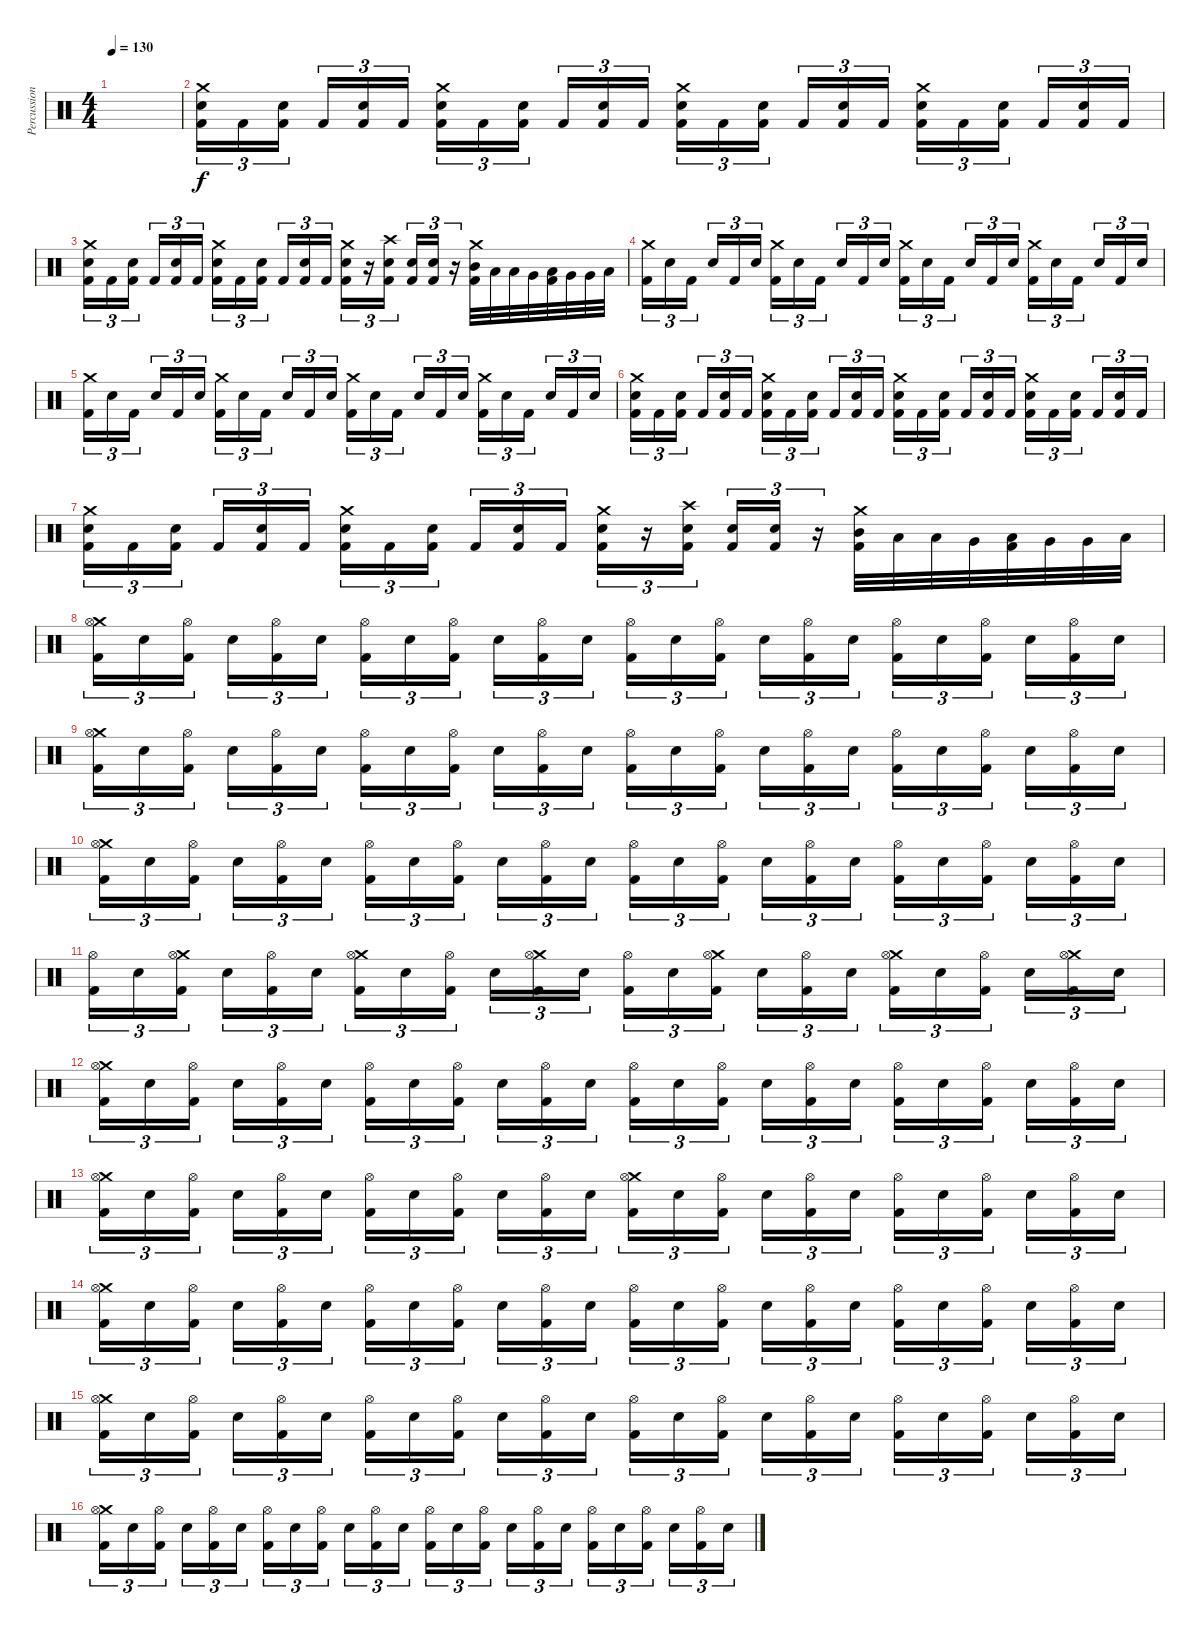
\track ("Percussion" "Percussion") {instrument percussion}
\staff {score}
\articulation defaults
\ts (4 4)
\tempo 130
\clef neutral
\ks c
|
("Crash medium (hit)" "Snare (hit) 2" "Kick (hit) 2").16{tu (3 2)} "Kick (hit) 2".16{tu (3 2)} ("Snare (hit) 2" "Kick (hit) 2").16{tu (3 2)} "Kick (hit) 2".16{tu (3 2)} ("Snare (hit) 2" "Kick (hit) 2").16{tu (3 2)} "Kick (hit) 2".16{tu (3 2)} ("Crash medium (hit)" "Snare (hit) 2" "Kick (hit) 2").16{tu (3 2)} "Kick (hit) 2".16{tu (3 2)} ("Snare (hit) 2" "Kick (hit) 2").16{tu (3 2)} "Kick (hit) 2".16{tu (3 2)} ("Snare (hit) 2" "Kick (hit) 2").16{tu (3 2)} "Kick (hit) 2".16{tu (3 2)} ("Crash medium (hit)" "Snare (hit) 2" "Kick (hit) 2").16{tu (3 2)} "Kick (hit) 2".16{tu (3 2)} ("Snare (hit) 2" "Kick (hit) 2").16{tu (3 2)} "Kick (hit) 2".16{tu (3 2)} ("Snare (hit) 2" "Kick (hit) 2").16{tu (3 2)} "Kick (hit) 2".16{tu (3 2)} ("Crash medium (hit)" "Snare (hit) 2" "Kick (hit) 2").16{tu (3 2)} "Kick (hit) 2".16{tu (3 2)} ("Snare (hit) 2" "Kick (hit) 2").16{tu (3 2)} "Kick (hit) 2".16{tu (3 2)} ("Snare (hit) 2" "Kick (hit) 2").16{tu (3 2)} "Kick (hit) 2".16{tu (3 2)} |
("Crash medium (hit)" "Snare (hit) 2" "Kick (hit) 2").16{tu (3 2)} "Kick (hit) 2".16{tu (3 2)} ("Snare (hit) 2" "Kick (hit) 2").16{tu (3 2)} "Kick (hit) 2".16{tu (3 2)} ("Snare (hit) 2" "Kick (hit) 2").16{tu (3 2)} "Kick (hit) 2".16{tu (3 2)} ("Crash medium (hit)" "Snare (hit) 2" "Kick (hit) 2").16{tu (3 2)} "Kick (hit) 2".16{tu (3 2)} ("Snare (hit) 2" "Kick (hit) 2").16{tu (3 2)} "Kick (hit) 2".16{tu (3 2)} ("Snare (hit) 2" "Kick (hit) 2").16{tu (3 2)} "Kick (hit) 2".16{tu (3 2)} ("Crash medium (hit)" "Snare (hit) 2" "Kick (hit) 2").16{tu (3 2)} r.16{tu (3 2)} ("Crash high (hit)" "Snare (hit) 2" "Kick (hit) 2").16{tu (3 2)} ("Snare (hit) 2" "Kick (hit) 2").16{tu (3 2)} ("Snare (hit) 2" "Kick (hit) 2").16{tu (3 2)} r.16{tu (3 2)} ("Crash medium (hit)" "Mid Tom (hit)" "Kick (hit) 2").32 "Low Tom (hit)".32 "Low Tom (hit)".32 "Very Low Tom (hit)".32 ("Low Tom (hit)" "Kick (hit) 2").32 "Very Low Tom (hit)".32 "Very Low Tom (hit)".32 "Low Floor Tom (hit)".32 |
("Crash medium (hit)" "Kick (hit) 2").16{tu (3 2)} "Snare (hit) 2".16{tu (3 2)} "Kick (hit) 2".16{tu (3 2)} "Snare (hit) 2".16{tu (3 2)} "Kick (hit) 2".16{tu (3 2)} "Snare (hit) 2".16{tu (3 2)} ("Crash medium (hit)" "Kick (hit) 2").16{tu (3 2)} "Snare (hit) 2".16{tu (3 2)} "Kick (hit) 2".16{tu (3 2)} "Snare (hit) 2".16{tu (3 2)} "Kick (hit) 2".16{tu (3 2)} "Snare (hit) 2".16{tu (3 2)} ("Crash medium (hit)" "Kick (hit) 2").16{tu (3 2)} "Snare (hit) 2".16{tu (3 2)} "Kick (hit) 2".16{tu (3 2)} "Snare (hit) 2".16{tu (3 2)} "Kick (hit) 2".16{tu (3 2)} "Snare (hit) 2".16{tu (3 2)} ("Crash medium (hit)" "Kick (hit) 2").16{tu (3 2)} "Snare (hit) 2".16{tu (3 2)} "Kick (hit) 2".16{tu (3 2)} "Snare (hit) 2".16{tu (3 2)} "Kick (hit) 2".16{tu (3 2)} "Snare (hit) 2".16{tu (3 2)} |
("Crash medium (hit)" "Kick (hit) 2").16{tu (3 2)} "Snare (hit) 2".16{tu (3 2)} "Kick (hit) 2".16{tu (3 2)} "Snare (hit) 2".16{tu (3 2)} "Kick (hit) 2".16{tu (3 2)} "Snare (hit) 2".16{tu (3 2)} ("Crash medium (hit)" "Kick (hit) 2").16{tu (3 2)} "Snare (hit) 2".16{tu (3 2)} "Kick (hit) 2".16{tu (3 2)} "Snare (hit) 2".16{tu (3 2)} "Kick (hit) 2".16{tu (3 2)} "Snare (hit) 2".16{tu (3 2)} ("Crash medium (hit)" "Kick (hit) 2").16{tu (3 2)} "Snare (hit) 2".16{tu (3 2)} "Kick (hit) 2".16{tu (3 2)} "Snare (hit) 2".16{tu (3 2)} "Kick (hit) 2".16{tu (3 2)} "Snare (hit) 2".16{tu (3 2)} ("Crash medium (hit)" "Kick (hit) 2").16{tu (3 2)} "Snare (hit) 2".16{tu (3 2)} "Kick (hit) 2".16{tu (3 2)} "Snare (hit) 2".16{tu (3 2)} "Kick (hit) 2".16{tu (3 2)} "Snare (hit) 2".16{tu (3 2)} |
("Crash medium (hit)" "Snare (hit) 2" "Kick (hit) 2").16{tu (3 2)} "Kick (hit) 2".16{tu (3 2)} ("Snare (hit) 2" "Kick (hit) 2").16{tu (3 2)} "Kick (hit) 2".16{tu (3 2)} ("Snare (hit) 2" "Kick (hit) 2").16{tu (3 2)} "Kick (hit) 2".16{tu (3 2)} ("Crash medium (hit)" "Snare (hit) 2" "Kick (hit) 2").16{tu (3 2)} "Kick (hit) 2".16{tu (3 2)} ("Snare (hit) 2" "Kick (hit) 2").16{tu (3 2)} "Kick (hit) 2".16{tu (3 2)} ("Snare (hit) 2" "Kick (hit) 2").16{tu (3 2)} "Kick (hit) 2".16{tu (3 2)} ("Crash medium (hit)" "Snare (hit) 2" "Kick (hit) 2").16{tu (3 2)} "Kick (hit) 2".16{tu (3 2)} ("Snare (hit) 2" "Kick (hit) 2").16{tu (3 2)} "Kick (hit) 2".16{tu (3 2)} ("Snare (hit) 2" "Kick (hit) 2").16{tu (3 2)} "Kick (hit) 2".16{tu (3 2)} ("Crash medium (hit)" "Snare (hit) 2" "Kick (hit) 2").16{tu (3 2)} "Kick (hit) 2".16{tu (3 2)} ("Snare (hit) 2" "Kick (hit) 2").16{tu (3 2)} "Kick (hit) 2".16{tu (3 2)} ("Snare (hit) 2" "Kick (hit) 2").16{tu (3 2)} "Kick (hit) 2".16{tu (3 2)} |
("Crash medium (hit)" "Snare (hit) 2" "Kick (hit) 2").16{tu (3 2)} "Kick (hit) 2".16{tu (3 2)} ("Snare (hit) 2" "Kick (hit) 2").16{tu (3 2)} "Kick (hit) 2".16{tu (3 2)} ("Snare (hit) 2" "Kick (hit) 2").16{tu (3 2)} "Kick (hit) 2".16{tu (3 2)} ("Crash medium (hit)" "Snare (hit) 2" "Kick (hit) 2").16{tu (3 2)} "Kick (hit) 2".16{tu (3 2)} ("Snare (hit) 2" "Kick (hit) 2").16{tu (3 2)} "Kick (hit) 2".16{tu (3 2)} ("Snare (hit) 2" "Kick (hit) 2").16{tu (3 2)} "Kick (hit) 2".16{tu (3 2)} ("Crash medium (hit)" "Snare (hit) 2" "Kick (hit) 2").16{tu (3 2)} r.16{tu (3 2)} ("Crash high (hit)" "Snare (hit) 2" "Kick (hit) 2").16{tu (3 2)} ("Snare (hit) 2" "Kick (hit) 2").16{tu (3 2)} ("Snare (hit) 2" "Kick (hit) 2").16{tu (3 2)} r.16{tu (3 2)} ("Crash medium (hit)" "Mid Tom (hit)" "Kick (hit) 2").32 "Low Tom (hit)".32 "Low Tom (hit)".32 "Very Low Tom (hit)".32 ("Low Tom (hit)" "Kick (hit) 2").32 "Very Low Tom (hit)".32 "Very Low Tom (hit)".32 "Low Floor Tom (hit)".32 |
("Crash medium (hit)" "Hi-Hat (open)" "Kick (hit) 2").16{tu (3 2)} "Snare (hit) 2".16{tu (3 2)} ("Hi-Hat (open)" "Kick (hit) 2").16{tu (3 2)} "Snare (hit) 2".16{tu (3 2)} ("Hi-Hat (open)" "Kick (hit) 2").16{tu (3 2)} "Snare (hit) 2".16{tu (3 2)} ("Hi-Hat (open)" "Kick (hit) 2").16{tu (3 2)} "Snare (hit) 2".16{tu (3 2)} ("Hi-Hat (open)" "Kick (hit) 2").16{tu (3 2)} "Snare (hit) 2".16{tu (3 2)} ("Hi-Hat (open)" "Kick (hit) 2").16{tu (3 2)} "Snare (hit) 2".16{tu (3 2)} ("Hi-Hat (open)" "Kick (hit) 2").16{tu (3 2)} "Snare (hit) 2".16{tu (3 2)} ("Hi-Hat (open)" "Kick (hit) 2").16{tu (3 2)} "Snare (hit) 2".16{tu (3 2)} ("Hi-Hat (open)" "Kick (hit) 2").16{tu (3 2)} "Snare (hit) 2".16{tu (3 2)} ("Hi-Hat (open)" "Kick (hit) 2").16{tu (3 2)} "Snare (hit) 2".16{tu (3 2)} ("Hi-Hat (open)" "Kick (hit) 2").16{tu (3 2)} "Snare (hit) 2".16{tu (3 2)} ("Hi-Hat (open)" "Kick (hit) 2").16{tu (3 2)} "Snare (hit) 2".16{tu (3 2)} |
("Crash medium (hit)" "Hi-Hat (open)" "Kick (hit) 2").16{tu (3 2)} "Snare (hit) 2".16{tu (3 2)} ("Hi-Hat (open)" "Kick (hit) 2").16{tu (3 2)} "Snare (hit) 2".16{tu (3 2)} ("Hi-Hat (open)" "Kick (hit) 2").16{tu (3 2)} "Snare (hit) 2".16{tu (3 2)} ("Hi-Hat (open)" "Kick (hit) 2").16{tu (3 2)} "Snare (hit) 2".16{tu (3 2)} ("Hi-Hat (open)" "Kick (hit) 2").16{tu (3 2)} "Snare (hit) 2".16{tu (3 2)} ("Hi-Hat (open)" "Kick (hit) 2").16{tu (3 2)} "Snare (hit) 2".16{tu (3 2)} ("Hi-Hat (open)" "Kick (hit) 2").16{tu (3 2)} "Snare (hit) 2".16{tu (3 2)} ("Hi-Hat (open)" "Kick (hit) 2").16{tu (3 2)} "Snare (hit) 2".16{tu (3 2)} ("Hi-Hat (open)" "Kick (hit) 2").16{tu (3 2)} "Snare (hit) 2".16{tu (3 2)} ("Hi-Hat (open)" "Kick (hit) 2").16{tu (3 2)} "Snare (hit) 2".16{tu (3 2)} ("Hi-Hat (open)" "Kick (hit) 2").16{tu (3 2)} "Snare (hit) 2".16{tu (3 2)} ("Hi-Hat (open)" "Kick (hit) 2").16{tu (3 2)} "Snare (hit) 2".16{tu (3 2)} |
("Crash medium (hit)" "Hi-Hat (open)" "Kick (hit) 2").16{tu (3 2)} "Snare (hit) 2".16{tu (3 2)} ("Hi-Hat (open)" "Kick (hit) 2").16{tu (3 2)} "Snare (hit) 2".16{tu (3 2)} ("Hi-Hat (open)" "Kick (hit) 2").16{tu (3 2)} "Snare (hit) 2".16{tu (3 2)} ("Hi-Hat (open)" "Kick (hit) 2").16{tu (3 2)} "Snare (hit) 2".16{tu (3 2)} ("Hi-Hat (open)" "Kick (hit) 2").16{tu (3 2)} "Snare (hit) 2".16{tu (3 2)} ("Hi-Hat (open)" "Kick (hit) 2").16{tu (3 2)} "Snare (hit) 2".16{tu (3 2)} ("Hi-Hat (open)" "Kick (hit) 2").16{tu (3 2)} "Snare (hit) 2".16{tu (3 2)} ("Hi-Hat (open)" "Kick (hit) 2").16{tu (3 2)} "Snare (hit) 2".16{tu (3 2)} ("Hi-Hat (open)" "Kick (hit) 2").16{tu (3 2)} "Snare (hit) 2".16{tu (3 2)} ("Hi-Hat (open)" "Kick (hit) 2").16{tu (3 2)} "Snare (hit) 2".16{tu (3 2)} ("Hi-Hat (open)" "Kick (hit) 2").16{tu (3 2)} "Snare (hit) 2".16{tu (3 2)} ("Hi-Hat (open)" "Kick (hit) 2").16{tu (3 2)} "Snare (hit) 2".16{tu (3 2)} |
("Hi-Hat (open)" "Kick (hit) 2").16{tu (3 2)} "Snare (hit) 2".16{tu (3 2)} ("Crash medium (hit)" "Hi-Hat (open)" "Kick (hit) 2").16{tu (3 2)} "Snare (hit) 2".16{tu (3 2)} ("Hi-Hat (open)" "Kick (hit) 2").16{tu (3 2)} "Snare (hit) 2".16{tu (3 2)} ("Crash medium (hit)" "Hi-Hat (open)" "Kick (hit) 2").16{tu (3 2)} "Snare (hit) 2".16{tu (3 2)} ("Hi-Hat (open)" "Kick (hit) 2").16{tu (3 2)} "Snare (hit) 2".16{tu (3 2)} ("Crash medium (hit)" "Hi-Hat (open)" "Kick (hit) 2").16{tu (3 2)} "Snare (hit) 2".16{tu (3 2)} ("Hi-Hat (open)" "Kick (hit) 2").16{tu (3 2)} "Snare (hit) 2".16{tu (3 2)} ("Crash medium (hit)" "Hi-Hat (open)" "Kick (hit) 2").16{tu (3 2)} "Snare (hit) 2".16{tu (3 2)} ("Hi-Hat (open)" "Kick (hit) 2").16{tu (3 2)} "Snare (hit) 2".16{tu (3 2)} ("Crash medium (hit)" "Hi-Hat (open)" "Kick (hit) 2").16{tu (3 2)} "Snare (hit) 2".16{tu (3 2)} ("Hi-Hat (open)" "Kick (hit) 2").16{tu (3 2)} "Snare (hit) 2".16{tu (3 2)} ("Crash medium (hit)" "Hi-Hat (open)" "Kick (hit) 2").16{tu (3 2)} "Snare (hit) 2".16{tu (3 2)} |
("Crash medium (hit)" "Hi-Hat (open)" "Kick (hit) 2").16{tu (3 2)} "Snare (hit) 2".16{tu (3 2)} ("Hi-Hat (open)" "Kick (hit) 2").16{tu (3 2)} "Snare (hit) 2".16{tu (3 2)} ("Hi-Hat (open)" "Kick (hit) 2").16{tu (3 2)} "Snare (hit) 2".16{tu (3 2)} ("Hi-Hat (open)" "Kick (hit) 2").16{tu (3 2)} "Snare (hit) 2".16{tu (3 2)} ("Hi-Hat (open)" "Kick (hit) 2").16{tu (3 2)} "Snare (hit) 2".16{tu (3 2)} ("Hi-Hat (open)" "Kick (hit) 2").16{tu (3 2)} "Snare (hit) 2".16{tu (3 2)} ("Hi-Hat (open)" "Kick (hit) 2").16{tu (3 2)} "Snare (hit) 2".16{tu (3 2)} ("Hi-Hat (open)" "Kick (hit) 2").16{tu (3 2)} "Snare (hit) 2".16{tu (3 2)} ("Hi-Hat (open)" "Kick (hit) 2").16{tu (3 2)} "Snare (hit) 2".16{tu (3 2)} ("Hi-Hat (open)" "Kick (hit) 2").16{tu (3 2)} "Snare (hit) 2".16{tu (3 2)} ("Hi-Hat (open)" "Kick (hit) 2").16{tu (3 2)} "Snare (hit) 2".16{tu (3 2)} ("Hi-Hat (open)" "Kick (hit) 2").16{tu (3 2)} "Snare (hit) 2".16{tu (3 2)} |
("Crash medium (hit)" "Hi-Hat (open)" "Kick (hit) 2").16{tu (3 2)} "Snare (hit) 2".16{tu (3 2)} ("Hi-Hat (open)" "Kick (hit) 2").16{tu (3 2)} "Snare (hit) 2".16{tu (3 2)} ("Hi-Hat (open)" "Kick (hit) 2").16{tu (3 2)} "Snare (hit) 2".16{tu (3 2)} ("Hi-Hat (open)" "Kick (hit) 2").16{tu (3 2)} "Snare (hit) 2".16{tu (3 2)} ("Hi-Hat (open)" "Kick (hit) 2").16{tu (3 2)} "Snare (hit) 2".16{tu (3 2)} ("Hi-Hat (open)" "Kick (hit) 2").16{tu (3 2)} "Snare (hit) 2".16{tu (3 2)} ("Crash medium (hit)" "Hi-Hat (open)" "Kick (hit) 2").16{tu (3 2)} "Snare (hit) 2".16{tu (3 2)} ("Hi-Hat (open)" "Kick (hit) 2").16{tu (3 2)} "Snare (hit) 2".16{tu (3 2)} ("Hi-Hat (open)" "Kick (hit) 2").16{tu (3 2)} "Snare (hit) 2".16{tu (3 2)} ("Hi-Hat (open)" "Kick (hit) 2").16{tu (3 2)} "Snare (hit) 2".16{tu (3 2)} ("Hi-Hat (open)" "Kick (hit) 2").16{tu (3 2)} "Snare (hit) 2".16{tu (3 2)} ("Hi-Hat (open)" "Kick (hit) 2").16{tu (3 2)} "Snare (hit) 2".16{tu (3 2)} |
("Crash medium (hit)" "Hi-Hat (open)" "Kick (hit) 2").16{tu (3 2)} "Snare (hit) 2".16{tu (3 2)} ("Hi-Hat (open)" "Kick (hit) 2").16{tu (3 2)} "Snare (hit) 2".16{tu (3 2)} ("Hi-Hat (open)" "Kick (hit) 2").16{tu (3 2)} "Snare (hit) 2".16{tu (3 2)} ("Hi-Hat (open)" "Kick (hit) 2").16{tu (3 2)} "Snare (hit) 2".16{tu (3 2)} ("Hi-Hat (open)" "Kick (hit) 2").16{tu (3 2)} "Snare (hit) 2".16{tu (3 2)} ("Hi-Hat (open)" "Kick (hit) 2").16{tu (3 2)} "Snare (hit) 2".16{tu (3 2)} ("Hi-Hat (open)" "Kick (hit) 2").16{tu (3 2)} "Snare (hit) 2".16{tu (3 2)} ("Hi-Hat (open)" "Kick (hit) 2").16{tu (3 2)} "Snare (hit) 2".16{tu (3 2)} ("Hi-Hat (open)" "Kick (hit) 2").16{tu (3 2)} "Snare (hit) 2".16{tu (3 2)} ("Hi-Hat (open)" "Kick (hit) 2").16{tu (3 2)} "Snare (hit) 2".16{tu (3 2)} ("Hi-Hat (open)" "Kick (hit) 2").16{tu (3 2)} "Snare (hit) 2".16{tu (3 2)} ("Hi-Hat (open)" "Kick (hit) 2").16{tu (3 2)} "Snare (hit) 2".16{tu (3 2)} |
("Crash medium (hit)" "Hi-Hat (open)" "Kick (hit) 2").16{tu (3 2)} "Snare (hit) 2".16{tu (3 2)} ("Hi-Hat (open)" "Kick (hit) 2").16{tu (3 2)} "Snare (hit) 2".16{tu (3 2)} ("Hi-Hat (open)" "Kick (hit) 2").16{tu (3 2)} "Snare (hit) 2".16{tu (3 2)} ("Hi-Hat (open)" "Kick (hit) 2").16{tu (3 2)} "Snare (hit) 2".16{tu (3 2)} ("Hi-Hat (open)" "Kick (hit) 2").16{tu (3 2)} "Snare (hit) 2".16{tu (3 2)} ("Hi-Hat (open)" "Kick (hit) 2").16{tu (3 2)} "Snare (hit) 2".16{tu (3 2)} ("Hi-Hat (open)" "Kick (hit) 2").16{tu (3 2)} "Snare (hit) 2".16{tu (3 2)} ("Hi-Hat (open)" "Kick (hit) 2").16{tu (3 2)} "Snare (hit) 2".16{tu (3 2)} ("Hi-Hat (open)" "Kick (hit) 2").16{tu (3 2)} "Snare (hit) 2".16{tu (3 2)} ("Hi-Hat (open)" "Kick (hit) 2").16{tu (3 2)} "Snare (hit) 2".16{tu (3 2)} ("Hi-Hat (open)" "Kick (hit) 2").16{tu (3 2)} "Snare (hit) 2".16{tu (3 2)} ("Hi-Hat (open)" "Kick (hit) 2").16{tu (3 2)} "Snare (hit) 2".16{tu (3 2)} |
("Crash medium (hit)" "Hi-Hat (open)" "Kick (hit) 2").16{tu (3 2)} "Snare (hit) 2".16{tu (3 2)} ("Hi-Hat (open)" "Kick (hit) 2").16{tu (3 2)} "Snare (hit) 2".16{tu (3 2)} ("Hi-Hat (open)" "Kick (hit) 2").16{tu (3 2)} "Snare (hit) 2".16{tu (3 2)} ("Hi-Hat (open)" "Kick (hit) 2").16{tu (3 2)} "Snare (hit) 2".16{tu (3 2)} ("Hi-Hat (open)" "Kick (hit) 2").16{tu (3 2)} "Snare (hit) 2".16{tu (3 2)} ("Hi-Hat (open)" "Kick (hit) 2").16{tu (3 2)} "Snare (hit) 2".16{tu (3 2)} ("Hi-Hat (open)" "Kick (hit) 2").16{tu (3 2)} "Snare (hit) 2".16{tu (3 2)} ("Hi-Hat (open)" "Kick (hit) 2").16{tu (3 2)} "Snare (hit) 2".16{tu (3 2)} ("Hi-Hat (open)" "Kick (hit) 2").16{tu (3 2)} "Snare (hit) 2".16{tu (3 2)} ("Hi-Hat (open)" "Kick (hit) 2").16{tu (3 2)} "Snare (hit) 2".16{tu (3 2)} ("Hi-Hat (open)" "Kick (hit) 2").16{tu (3 2)} "Snare (hit) 2".16{tu (3 2)} ("Hi-Hat (open)" "Kick (hit) 2").16{tu (3 2)} "Snare (hit) 2".16{tu (3 2)}
